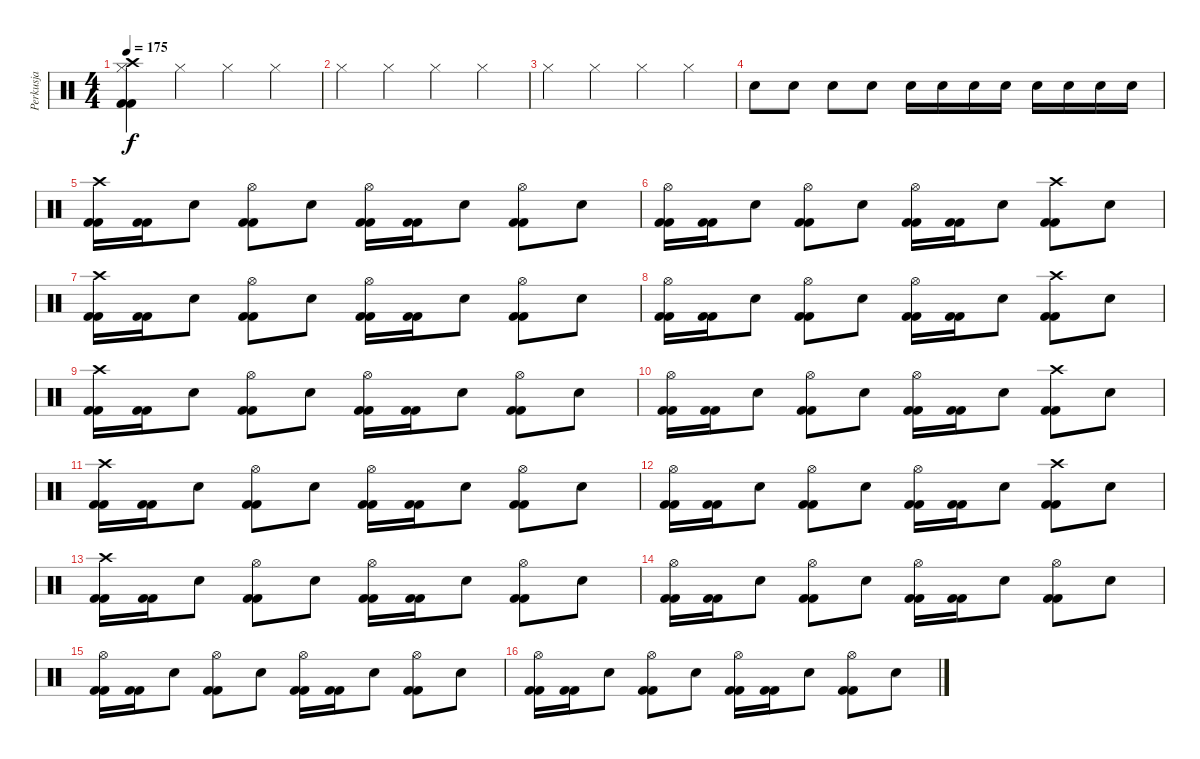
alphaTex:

\track ("Perkusja" "Perkusja") {instrument percussion}
\staff {score}
\articulation defaults
\ts (4 4)
\tempo 175
\clef neutral
\ks c
("Crash high (hit)" "Hi-Hat (closed)" "Kick (hit) 2" "Kick (hit) 2").4{dy f} "Hi-Hat (closed)".4 "Hi-Hat (closed)".4 "Hi-Hat (closed)".4 |
"Hi-Hat (closed)".4 "Hi-Hat (closed)".4 "Hi-Hat (closed)".4 "Hi-Hat (closed)".4 |
"Hi-Hat (closed)".4 "Hi-Hat (closed)".4 "Hi-Hat (closed)".4 "Hi-Hat (closed)".4 |
"Electric Snare (hit)".8 "Electric Snare (hit)".8 "Electric Snare (hit)".8 "Electric Snare (hit)".8 "Electric Snare (hit)".16 "Electric Snare (hit)".16 "Electric Snare (hit)".16 "Electric Snare (hit)".16 "Electric Snare (hit)".16 "Electric Snare (hit)".16 "Electric Snare (hit)".16 "Electric Snare (hit)".16 |
("Crash high (hit)" "Kick (hit) 2" "Kick (hit) 2").16 ("Kick (hit) 2" "Kick (hit) 2").16 "Electric Snare (hit)".8 ("Hi-Hat (open)" "Kick (hit) 2" "Kick (hit) 2").8 "Electric Snare (hit)".8 ("Hi-Hat (open)" "Kick (hit) 2" "Kick (hit) 2").16 ("Kick (hit) 2" "Kick (hit) 2").16 "Electric Snare (hit)".8 ("Hi-Hat (open)" "Kick (hit) 2" "Kick (hit) 2").8 "Electric Snare (hit)".8 |
("Hi-Hat (open)" "Kick (hit) 2" "Kick (hit) 2").16 ("Kick (hit) 2" "Kick (hit) 2").16 "Electric Snare (hit)".8 ("Hi-Hat (open)" "Kick (hit) 2" "Kick (hit) 2").8 "Electric Snare (hit)".8 ("Hi-Hat (open)" "Kick (hit) 2" "Kick (hit) 2").16 ("Kick (hit) 2" "Kick (hit) 2").16 "Electric Snare (hit)".8 ("Crash high (hit)" "Kick (hit) 2" "Kick (hit) 2").8 "Electric Snare (hit)".8 |
("Crash high (hit)" "Kick (hit) 2" "Kick (hit) 2").16 ("Kick (hit) 2" "Kick (hit) 2").16 "Electric Snare (hit)".8 ("Hi-Hat (open)" "Kick (hit) 2" "Kick (hit) 2").8 "Electric Snare (hit)".8 ("Hi-Hat (open)" "Kick (hit) 2" "Kick (hit) 2").16 ("Kick (hit) 2" "Kick (hit) 2").16 "Electric Snare (hit)".8 ("Hi-Hat (open)" "Kick (hit) 2" "Kick (hit) 2").8 "Electric Snare (hit)".8 |
("Hi-Hat (open)" "Kick (hit) 2" "Kick (hit) 2").16 ("Kick (hit) 2" "Kick (hit) 2").16 "Electric Snare (hit)".8 ("Hi-Hat (open)" "Kick (hit) 2" "Kick (hit) 2").8 "Electric Snare (hit)".8 ("Hi-Hat (open)" "Kick (hit) 2" "Kick (hit) 2").16 ("Kick (hit) 2" "Kick (hit) 2").16 "Electric Snare (hit)".8 ("Crash high (hit)" "Kick (hit) 2" "Kick (hit) 2").8 "Electric Snare (hit)".8 |
("Crash high (hit)" "Kick (hit) 2" "Kick (hit) 2").16 ("Kick (hit) 2" "Kick (hit) 2").16 "Electric Snare (hit)".8 ("Hi-Hat (open)" "Kick (hit) 2" "Kick (hit) 2").8 "Electric Snare (hit)".8 ("Hi-Hat (open)" "Kick (hit) 2" "Kick (hit) 2").16 ("Kick (hit) 2" "Kick (hit) 2").16 "Electric Snare (hit)".8 ("Hi-Hat (open)" "Kick (hit) 2" "Kick (hit) 2").8 "Electric Snare (hit)".8 |
("Hi-Hat (open)" "Kick (hit) 2" "Kick (hit) 2").16 ("Kick (hit) 2" "Kick (hit) 2").16 "Electric Snare (hit)".8 ("Hi-Hat (open)" "Kick (hit) 2" "Kick (hit) 2").8 "Electric Snare (hit)".8 ("Hi-Hat (open)" "Kick (hit) 2" "Kick (hit) 2").16 ("Kick (hit) 2" "Kick (hit) 2").16 "Electric Snare (hit)".8 ("Crash high (hit)" "Kick (hit) 2" "Kick (hit) 2").8 "Electric Snare (hit)".8 |
("Crash high (hit)" "Kick (hit) 2" "Kick (hit) 2").16 ("Kick (hit) 2" "Kick (hit) 2").16 "Electric Snare (hit)".8 ("Hi-Hat (open)" "Kick (hit) 2" "Kick (hit) 2").8 "Electric Snare (hit)".8 ("Hi-Hat (open)" "Kick (hit) 2" "Kick (hit) 2").16 ("Kick (hit) 2" "Kick (hit) 2").16 "Electric Snare (hit)".8 ("Hi-Hat (open)" "Kick (hit) 2" "Kick (hit) 2").8 "Electric Snare (hit)".8 |
("Hi-Hat (open)" "Kick (hit) 2" "Kick (hit) 2").16 ("Kick (hit) 2" "Kick (hit) 2").16 "Electric Snare (hit)".8 ("Hi-Hat (open)" "Kick (hit) 2" "Kick (hit) 2").8 "Electric Snare (hit)".8 ("Hi-Hat (open)" "Kick (hit) 2" "Kick (hit) 2").16 ("Kick (hit) 2" "Kick (hit) 2").16 "Electric Snare (hit)".8 ("Crash high (hit)" "Kick (hit) 2" "Kick (hit) 2").8 "Electric Snare (hit)".8 |
("Crash high (hit)" "Kick (hit) 2" "Kick (hit) 2").16 ("Kick (hit) 2" "Kick (hit) 2").16 "Electric Snare (hit)".8 ("Hi-Hat (open)" "Kick (hit) 2" "Kick (hit) 2").8 "Electric Snare (hit)".8 ("Hi-Hat (open)" "Kick (hit) 2" "Kick (hit) 2").16 ("Kick (hit) 2" "Kick (hit) 2").16 "Electric Snare (hit)".8 ("Hi-Hat (open)" "Kick (hit) 2" "Kick (hit) 2").8 "Electric Snare (hit)".8 |
("Hi-Hat (open)" "Kick (hit) 2" "Kick (hit) 2").16 ("Kick (hit) 2" "Kick (hit) 2").16 "Electric Snare (hit)".8 ("Hi-Hat (open)" "Kick (hit) 2" "Kick (hit) 2").8 "Electric Snare (hit)".8 ("Hi-Hat (open)" "Kick (hit) 2" "Kick (hit) 2").16 ("Kick (hit) 2" "Kick (hit) 2").16 "Electric Snare (hit)".8 ("Hi-Hat (open)" "Kick (hit) 2" "Kick (hit) 2").8 "Electric Snare (hit)".8 |
("Hi-Hat (open)" "Kick (hit) 2" "Kick (hit) 2").16 ("Kick (hit) 2" "Kick (hit) 2").16 "Electric Snare (hit)".8 ("Hi-Hat (open)" "Kick (hit) 2" "Kick (hit) 2").8 "Electric Snare (hit)".8 ("Hi-Hat (open)" "Kick (hit) 2" "Kick (hit) 2").16 ("Kick (hit) 2" "Kick (hit) 2").16 "Electric Snare (hit)".8 ("Hi-Hat (open)" "Kick (hit) 2" "Kick (hit) 2").8 "Electric Snare (hit)".8 |
("Hi-Hat (open)" "Kick (hit) 2" "Kick (hit) 2").16 ("Kick (hit) 2" "Kick (hit) 2").16 "Electric Snare (hit)".8 ("Hi-Hat (open)" "Kick (hit) 2" "Kick (hit) 2").8 "Electric Snare (hit)".8 ("Hi-Hat (open)" "Kick (hit) 2" "Kick (hit) 2").16 ("Kick (hit) 2" "Kick (hit) 2").16 "Electric Snare (hit)".8 ("Hi-Hat (open)" "Kick (hit) 2" "Kick (hit) 2").8 "Electric Snare (hit)".8
